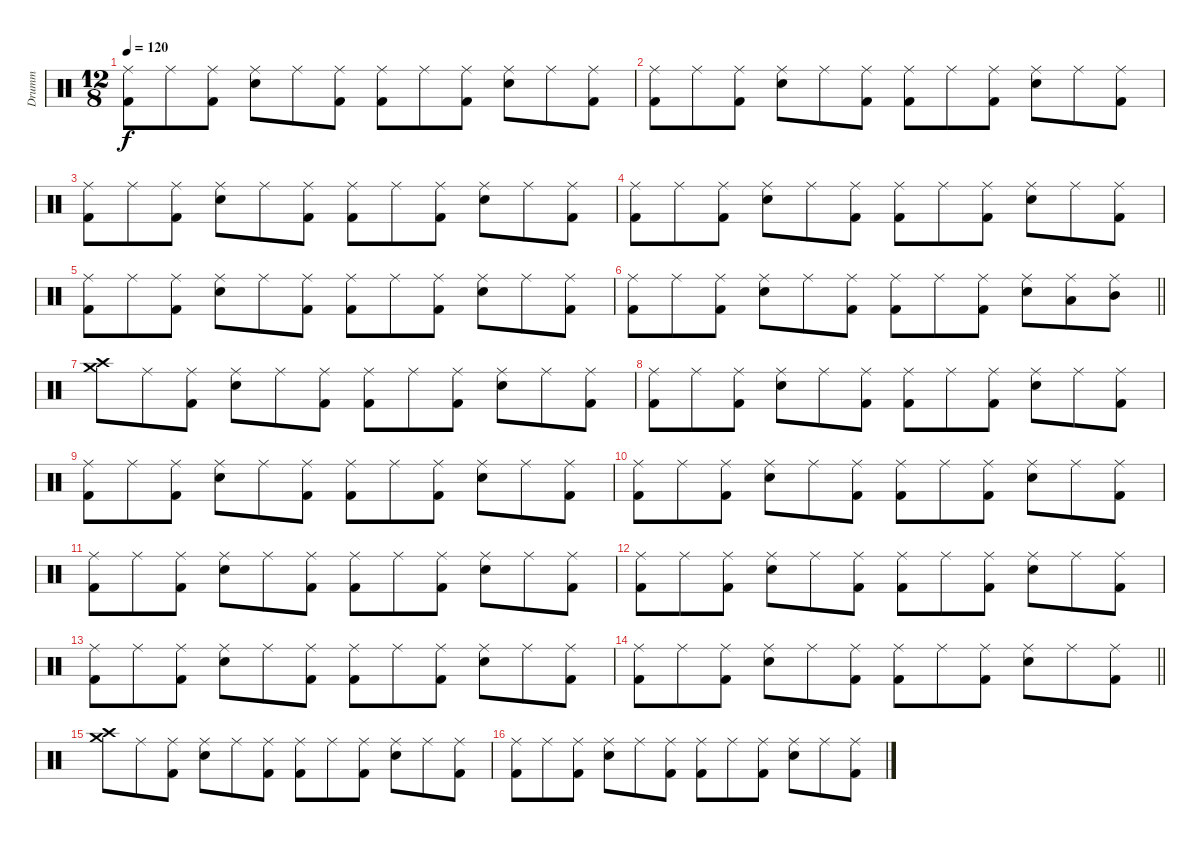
\track ("Drumm" "Drumm") {instrument percussion}
\staff {score}
\articulation defaults
\ts (12 8)
\tempo 120
\clef neutral
\ks c
("Kick (hit) 2" "Ride (middle)").8{dy f} "Ride (middle)".8 ("Kick (hit) 2" "Ride (middle)").8 ("Electric Snare (hit)" "Ride (middle)").8 "Ride (middle)".8 ("Kick (hit) 2" "Ride (middle)").8 ("Kick (hit) 2" "Ride (middle)").8 "Ride (middle)".8 ("Kick (hit) 2" "Ride (middle)").8 ("Electric Snare (hit)" "Ride (middle)").8 "Ride (middle)".8 ("Kick (hit) 2" "Ride (middle)").8 |
("Kick (hit) 2" "Ride (middle)").8 "Ride (middle)".8 ("Kick (hit) 2" "Ride (middle)").8 ("Electric Snare (hit)" "Ride (middle)").8 "Ride (middle)".8 ("Kick (hit) 2" "Ride (middle)").8 ("Kick (hit) 2" "Ride (middle)").8 "Ride (middle)".8 ("Kick (hit) 2" "Ride (middle)").8 ("Electric Snare (hit)" "Ride (middle)").8 "Ride (middle)".8 ("Kick (hit) 2" "Ride (middle)").8 |
("Kick (hit) 2" "Ride (middle)").8 "Ride (middle)".8 ("Kick (hit) 2" "Ride (middle)").8 ("Electric Snare (hit)" "Ride (middle)").8 "Ride (middle)".8 ("Kick (hit) 2" "Ride (middle)").8 ("Kick (hit) 2" "Ride (middle)").8 "Ride (middle)".8 ("Kick (hit) 2" "Ride (middle)").8 ("Electric Snare (hit)" "Ride (middle)").8 "Ride (middle)".8 ("Kick (hit) 2" "Ride (middle)").8 |
("Kick (hit) 2" "Ride (middle)").8 "Ride (middle)".8 ("Kick (hit) 2" "Ride (middle)").8 ("Electric Snare (hit)" "Ride (middle)").8 "Ride (middle)".8 ("Kick (hit) 2" "Ride (middle)").8 ("Kick (hit) 2" "Ride (middle)").8 "Ride (middle)".8 ("Kick (hit) 2" "Ride (middle)").8 ("Electric Snare (hit)" "Ride (middle)").8 "Ride (middle)".8 ("Kick (hit) 2" "Ride (middle)").8 |
("Kick (hit) 2" "Ride (middle)").8 "Ride (middle)".8 ("Kick (hit) 2" "Ride (middle)").8 ("Electric Snare (hit)" "Ride (middle)").8 "Ride (middle)".8 ("Kick (hit) 2" "Ride (middle)").8 ("Kick (hit) 2" "Ride (middle)").8 "Ride (middle)".8 ("Kick (hit) 2" "Ride (middle)").8 ("Electric Snare (hit)" "Ride (middle)").8 "Ride (middle)".8 ("Kick (hit) 2" "Ride (middle)").8 |
\barLineRight lightlight
("Kick (hit) 2" "Ride (middle)").8 "Ride (middle)".8 ("Kick (hit) 2" "Ride (middle)").8 ("Electric Snare (hit)" "Ride (middle)").8 "Ride (middle)".8 ("Kick (hit) 2" "Ride (middle)").8 ("Kick (hit) 2" "Ride (middle)").8 "Ride (middle)".8 ("Kick (hit) 2" "Ride (middle)").8 ("Electric Snare (hit)" "Ride (middle)").8 ("Low Tom (hit)" "Ride (middle)").8 ("Mid Tom (hit)" "Ride (middle)").8 |
("Crash high (hit)" "Crash medium (hit)").8 "Ride (middle)".8 ("Kick (hit) 2" "Ride (middle)").8 ("Electric Snare (hit)" "Ride (middle)").8 "Ride (middle)".8 ("Kick (hit) 2" "Ride (middle)").8 ("Kick (hit) 2" "Ride (middle)").8 "Ride (middle)".8 ("Kick (hit) 2" "Ride (middle)").8 ("Electric Snare (hit)" "Ride (middle)").8 "Ride (middle)".8 ("Kick (hit) 2" "Ride (middle)").8 |
("Kick (hit) 2" "Ride (middle)").8 "Ride (middle)".8 ("Kick (hit) 2" "Ride (middle)").8 ("Electric Snare (hit)" "Ride (middle)").8 "Ride (middle)".8 ("Kick (hit) 2" "Ride (middle)").8 ("Kick (hit) 2" "Ride (middle)").8 "Ride (middle)".8 ("Kick (hit) 2" "Ride (middle)").8 ("Electric Snare (hit)" "Ride (middle)").8 "Ride (middle)".8 ("Kick (hit) 2" "Ride (middle)").8 |
("Kick (hit) 2" "Ride (middle)").8 "Ride (middle)".8 ("Kick (hit) 2" "Ride (middle)").8 ("Electric Snare (hit)" "Ride (middle)").8 "Ride (middle)".8 ("Kick (hit) 2" "Ride (middle)").8 ("Kick (hit) 2" "Ride (middle)").8 "Ride (middle)".8 ("Kick (hit) 2" "Ride (middle)").8 ("Electric Snare (hit)" "Ride (middle)").8 "Ride (middle)".8 ("Kick (hit) 2" "Ride (middle)").8 |
("Kick (hit) 2" "Ride (middle)").8 "Ride (middle)".8 ("Kick (hit) 2" "Ride (middle)").8 ("Electric Snare (hit)" "Ride (middle)").8 "Ride (middle)".8 ("Kick (hit) 2" "Ride (middle)").8 ("Kick (hit) 2" "Ride (middle)").8 "Ride (middle)".8 ("Kick (hit) 2" "Ride (middle)").8 ("Electric Snare (hit)" "Ride (middle)").8 "Ride (middle)".8 ("Kick (hit) 2" "Ride (middle)").8 |
("Kick (hit) 2" "Ride (middle)").8 "Ride (middle)".8 ("Kick (hit) 2" "Ride (middle)").8 ("Electric Snare (hit)" "Ride (middle)").8 "Ride (middle)".8 ("Kick (hit) 2" "Ride (middle)").8 ("Kick (hit) 2" "Ride (middle)").8 "Ride (middle)".8 ("Kick (hit) 2" "Ride (middle)").8 ("Electric Snare (hit)" "Ride (middle)").8 "Ride (middle)".8 ("Kick (hit) 2" "Ride (middle)").8 |
("Kick (hit) 2" "Ride (middle)").8 "Ride (middle)".8 ("Kick (hit) 2" "Ride (middle)").8 ("Electric Snare (hit)" "Ride (middle)").8 "Ride (middle)".8 ("Kick (hit) 2" "Ride (middle)").8 ("Kick (hit) 2" "Ride (middle)").8 "Ride (middle)".8 ("Kick (hit) 2" "Ride (middle)").8 ("Electric Snare (hit)" "Ride (middle)").8 "Ride (middle)".8 ("Kick (hit) 2" "Ride (middle)").8 |
("Kick (hit) 2" "Ride (middle)").8 "Ride (middle)".8 ("Kick (hit) 2" "Ride (middle)").8 ("Electric Snare (hit)" "Ride (middle)").8 "Ride (middle)".8 ("Kick (hit) 2" "Ride (middle)").8 ("Kick (hit) 2" "Ride (middle)").8 "Ride (middle)".8 ("Kick (hit) 2" "Ride (middle)").8 ("Electric Snare (hit)" "Ride (middle)").8 "Ride (middle)".8 ("Kick (hit) 2" "Ride (middle)").8 |
\barLineRight lightlight
("Kick (hit) 2" "Ride (middle)").8 "Ride (middle)".8 ("Kick (hit) 2" "Ride (middle)").8 ("Electric Snare (hit)" "Ride (middle)").8 "Ride (middle)".8 ("Kick (hit) 2" "Ride (middle)").8 ("Kick (hit) 2" "Ride (middle)").8 "Ride (middle)".8 ("Kick (hit) 2" "Ride (middle)").8 ("Electric Snare (hit)" "Ride (middle)").8 "Ride (middle)".8 ("Kick (hit) 2" "Ride (middle)").8 |
("Crash high (hit)" "Crash medium (hit)").8 "Ride (middle)".8 ("Kick (hit) 2" "Ride (middle)").8 ("Electric Snare (hit)" "Ride (middle)").8 "Ride (middle)".8 ("Kick (hit) 2" "Ride (middle)").8 ("Kick (hit) 2" "Ride (middle)").8 "Ride (middle)".8 ("Kick (hit) 2" "Ride (middle)").8 ("Electric Snare (hit)" "Ride (middle)").8 "Ride (middle)".8 ("Kick (hit) 2" "Ride (middle)").8 |
("Kick (hit) 2" "Ride (middle)").8 "Ride (middle)".8 ("Kick (hit) 2" "Ride (middle)").8 ("Electric Snare (hit)" "Ride (middle)").8 "Ride (middle)".8 ("Kick (hit) 2" "Ride (middle)").8 ("Kick (hit) 2" "Ride (middle)").8 "Ride (middle)".8 ("Kick (hit) 2" "Ride (middle)").8 ("Electric Snare (hit)" "Ride (middle)").8 "Ride (middle)".8 ("Kick (hit) 2" "Ride (middle)").8
